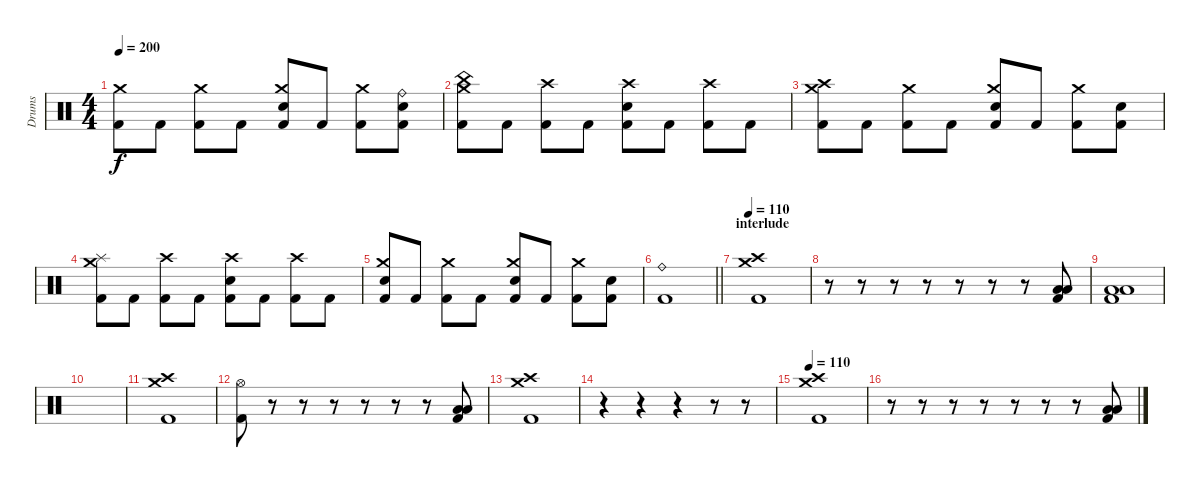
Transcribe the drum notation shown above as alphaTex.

\track ("Drums" "Drums") {instrument percussion}
\staff {score}
\articulation defaults
\ts (4 4)
\tempo 200
\clef neutral
\ks c
("Kick (hit) 2" "Crash medium (hit)").8{dy f} "Kick (hit) 2".8 ("Kick (hit) 2" "Crash medium (hit)").8 "Kick (hit) 2".8 ("Electric Snare (hit)" "Kick (hit) 2" "Crash medium (hit)").8 "Kick (hit) 2".8 ("Kick (hit) 2" "Crash medium (hit)").8 ("Electric Snare (hit)" "Kick (hit) 2" "Ride (bell)").8 |
("Kick (hit) 2" "Crash medium (hit)" "China (hit)").8 "Kick (hit) 2".8 ("Kick (hit) 2" "Crash high (hit)").8 "Kick (hit) 2".8 ("Electric Snare (hit)" "Kick (hit) 2" "Crash high (hit)").8 "Kick (hit) 2".8 ("Kick (hit) 2" "Crash high (hit)").8 "Kick (hit) 2".8 |
("Kick (hit) 2" "Crash medium (hit)" "Crash high (hit)").8 "Kick (hit) 2".8 ("Kick (hit) 2" "Crash medium (hit)").8 "Kick (hit) 2".8 ("Electric Snare (hit)" "Kick (hit) 2" "Crash medium (hit)").8 "Kick (hit) 2".8 ("Kick (hit) 2" "Crash medium (hit)").8 ("Electric Snare (hit)" "Kick (hit) 2").8 |
("Kick (hit) 2" "Crash medium (hit)" "Splash (hit)").8 "Kick (hit) 2".8 ("Kick (hit) 2" "Crash high (hit)").8 "Kick (hit) 2".8 ("Electric Snare (hit)" "Kick (hit) 2" "Crash high (hit)").8 "Kick (hit) 2".8 ("Kick (hit) 2" "Crash high (hit)").8 "Kick (hit) 2".8 |
("Electric Snare (hit)" "Kick (hit) 2" "Crash medium (hit)").8 "Kick (hit) 2".8 ("Kick (hit) 2" "Crash medium (hit)").8 "Kick (hit) 2".8 ("Electric Snare (hit)" "Kick (hit) 2" "Crash medium (hit)").8 "Kick (hit) 2".8 ("Kick (hit) 2" "Crash medium (hit)").8 ("Electric Snare (hit)" "Kick (hit) 2").8 |
\barLineRight lightlight
("Kick (hit) 2" "Ride (bell)").1 |
\section ("" "interlude")
\tempo 110
("Kick (hit) 2" "Crash medium (hit)" "Crash high (hit)").1 |
r.8 r.8 r.8 r.8 r.8 r.8 r.8 ("Kick (hit) 2" "Low Floor Tom (hit)" "Low Floor Tom (hit)").8 |
("Kick (hit) 2" "Low Floor Tom (hit)" "Low Floor Tom (hit)").1 |
|
("Kick (hit) 2" "Crash medium (hit)" "Crash high (hit)").1 |
("Kick (hit) 2" "Hi-Hat (open)").8 r.8 r.8 r.8 r.8 r.8 r.8 ("Kick (hit) 2" "Low Floor Tom (hit)" "Low Floor Tom (hit)").8 |
("Kick (hit) 2" "Crash medium (hit)" "Crash high (hit)").1 |
r.4 r.4 r.4 r.8 r.8 |
\tempo 110
("Kick (hit) 2" "Crash medium (hit)" "Crash high (hit)").1 |
r.8 r.8 r.8 r.8 r.8 r.8 r.8 ("Kick (hit) 2" "Low Floor Tom (hit)" "Low Floor Tom (hit)").8
